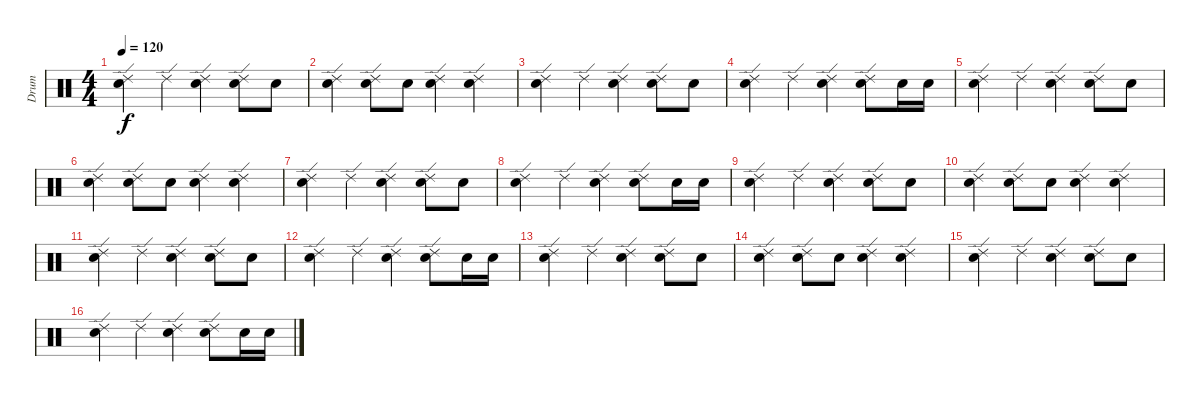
\track ("Drum" "Drum") {instrument percussion}
\staff {score}
\articulation defaults
\ts (4 4)
\tempo 120
\clef neutral
\ks c
("Electric Snare (hit)" "Ride (edge) 2").4{dy f} "Ride (edge) 2".4 ("Electric Snare (hit)" "Ride (edge) 2").4 ("Electric Snare (hit)" "Ride (edge) 2").8 "Electric Snare (hit)".8 |
("Electric Snare (hit)" "Ride (edge) 2").4 ("Electric Snare (hit)" "Ride (edge) 2").8 "Electric Snare (hit)".8 ("Electric Snare (hit)" "Ride (edge) 2").4 ("Electric Snare (hit)" "Ride (edge) 2").4 |
("Electric Snare (hit)" "Ride (edge) 2").4 "Ride (edge) 2".4 ("Electric Snare (hit)" "Ride (edge) 2").4 ("Electric Snare (hit)" "Ride (edge) 2").8 "Electric Snare (hit)".8 |
("Electric Snare (hit)" "Ride (edge) 2").4 "Ride (edge) 2".4 ("Electric Snare (hit)" "Ride (edge) 2").4 ("Electric Snare (hit)" "Ride (edge) 2").8 "Electric Snare (hit)".16 "Electric Snare (hit)".16 |
("Electric Snare (hit)" "Ride (edge) 2").4 "Ride (edge) 2".4 ("Electric Snare (hit)" "Ride (edge) 2").4 ("Electric Snare (hit)" "Ride (edge) 2").8 "Electric Snare (hit)".8 |
("Electric Snare (hit)" "Ride (edge) 2").4 ("Electric Snare (hit)" "Ride (edge) 2").8 "Electric Snare (hit)".8 ("Electric Snare (hit)" "Ride (edge) 2").4 ("Electric Snare (hit)" "Ride (edge) 2").4 |
("Electric Snare (hit)" "Ride (edge) 2").4 "Ride (edge) 2".4 ("Electric Snare (hit)" "Ride (edge) 2").4 ("Electric Snare (hit)" "Ride (edge) 2").8 "Electric Snare (hit)".8 |
("Electric Snare (hit)" "Ride (edge) 2").4 "Ride (edge) 2".4 ("Electric Snare (hit)" "Ride (edge) 2").4 ("Electric Snare (hit)" "Ride (edge) 2").8 "Electric Snare (hit)".16 "Electric Snare (hit)".16 |
("Electric Snare (hit)" "Ride (edge) 2").4 "Ride (edge) 2".4 ("Electric Snare (hit)" "Ride (edge) 2").4 ("Electric Snare (hit)" "Ride (edge) 2").8 "Electric Snare (hit)".8 |
("Electric Snare (hit)" "Ride (edge) 2").4 ("Electric Snare (hit)" "Ride (edge) 2").8 "Electric Snare (hit)".8 ("Electric Snare (hit)" "Ride (edge) 2").4 ("Electric Snare (hit)" "Ride (edge) 2").4 |
("Electric Snare (hit)" "Ride (edge) 2").4 "Ride (edge) 2".4 ("Electric Snare (hit)" "Ride (edge) 2").4 ("Electric Snare (hit)" "Ride (edge) 2").8 "Electric Snare (hit)".8 |
("Electric Snare (hit)" "Ride (edge) 2").4 "Ride (edge) 2".4 ("Electric Snare (hit)" "Ride (edge) 2").4 ("Electric Snare (hit)" "Ride (edge) 2").8 "Electric Snare (hit)".16 "Electric Snare (hit)".16 |
("Electric Snare (hit)" "Ride (edge) 2").4 "Ride (edge) 2".4 ("Electric Snare (hit)" "Ride (edge) 2").4 ("Electric Snare (hit)" "Ride (edge) 2").8 "Electric Snare (hit)".8 |
("Electric Snare (hit)" "Ride (edge) 2").4 ("Electric Snare (hit)" "Ride (edge) 2").8 "Electric Snare (hit)".8 ("Electric Snare (hit)" "Ride (edge) 2").4 ("Electric Snare (hit)" "Ride (edge) 2").4 |
("Electric Snare (hit)" "Ride (edge) 2").4 "Ride (edge) 2".4 ("Electric Snare (hit)" "Ride (edge) 2").4 ("Electric Snare (hit)" "Ride (edge) 2").8 "Electric Snare (hit)".8 |
("Electric Snare (hit)" "Ride (edge) 2").4 "Ride (edge) 2".4 ("Electric Snare (hit)" "Ride (edge) 2").4 ("Electric Snare (hit)" "Ride (edge) 2").8 "Electric Snare (hit)".16 "Electric Snare (hit)".16
